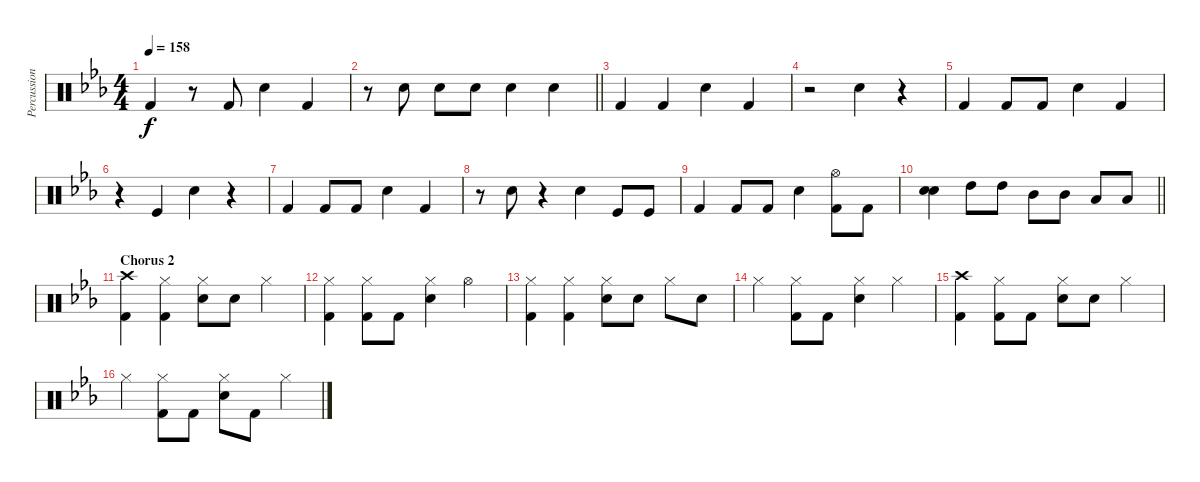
\track ("Percussion" "Percussion") {instrument percussion}
\staff {score}
\articulation defaults
\ts (4 4)
\tempo 158
\clef neutral
\ks eb "Kick (hit) 2".4{dy f}
r.8 "Kick (hit) 2".8 "Snare (hit) 2".4 "Kick (hit) 2".4 |
\barLineRight lightlight
r.8 "Snare (hit) 2".8 "Snare (hit) 2".8 "Snare (hit) 2".8 "Snare (hit) 2".4 "Snare (hit) 2".4 |
"Kick (hit) 2".4 "Kick (hit) 2".4 "Snare (hit) 2".4 "Kick (hit) 2".4 |
r.2 "Snare (hit) 2".4 r.4 |
"Kick (hit) 2".4 "Kick (hit) 2".8 "Kick (hit) 2".8 "Snare (hit) 2".4 "Kick (hit) 2".4 |
r.4 "Kick (hit)".4 "Snare (hit) 2".4 r.4 |
"Kick (hit) 2".4 "Kick (hit) 2".8 "Kick (hit) 2".8 "Snare (hit) 2".4 "Kick (hit) 2".4 |
r.8 "Snare (hit) 2".8 r.4 "Snare (hit) 2".4 "Kick (hit)".8 "Kick (hit)".8 |
"Kick (hit) 2".4 "Kick (hit) 2".8 "Kick (hit) 2".8 "Snare (hit) 2".4 ("Kick (hit) 2" "Hi-Hat (open)").8 "Kick (hit) 2".8 |
\barLineRight lightlight
("Snare (hit) 2" "Snare (hit) 2").4 "High Tom (hit)".8 "High Tom (hit)".8 "Mid Tom (hit)".8 "Mid Tom (hit)".8 "Low Tom (hit)".8 "Low Tom (hit)".8 |
\section ("" "Chorus 2")
("Crash high (hit)" "Kick (hit) 2").4 ("Hi-Hat (closed)" "Kick (hit) 2").4 ("Hi-Hat (closed)" "Snare (hit) 2").8 "Snare (hit) 2".8 "Hi-Hat (closed)".4 |
("Hi-Hat (closed)" "Kick (hit) 2").4 ("Hi-Hat (closed)" "Kick (hit) 2").8 "Kick (hit) 2".8 ("Hi-Hat (closed)" "Snare (hit) 2").4 "Hi-Hat (open)".4 |
("Hi-Hat (closed)" "Kick (hit) 2").4 ("Hi-Hat (closed)" "Kick (hit) 2").4 ("Hi-Hat (closed)" "Snare (hit) 2").8 "Snare (hit) 2".8 "Hi-Hat (closed)".8 "Snare (hit) 2".8 |
"Hi-Hat (closed)".4 ("Hi-Hat (closed)" "Kick (hit) 2").8 "Kick (hit) 2".8 ("Hi-Hat (closed)" "Snare (hit) 2").4 "Hi-Hat (closed)".4 |
("Crash high (hit)" "Kick (hit) 2").4 ("Hi-Hat (closed)" "Kick (hit) 2").8 "Kick (hit) 2".8 ("Hi-Hat (closed)" "Snare (hit) 2").8 "Snare (hit) 2".8 "Hi-Hat (closed)".4 |
"Hi-Hat (closed)".4 ("Hi-Hat (closed)" "Kick (hit) 2").8 "Kick (hit) 2".8 ("Hi-Hat (closed)" "Snare (hit) 2").8 "Kick (hit) 2".8 "Hi-Hat (closed)".4
